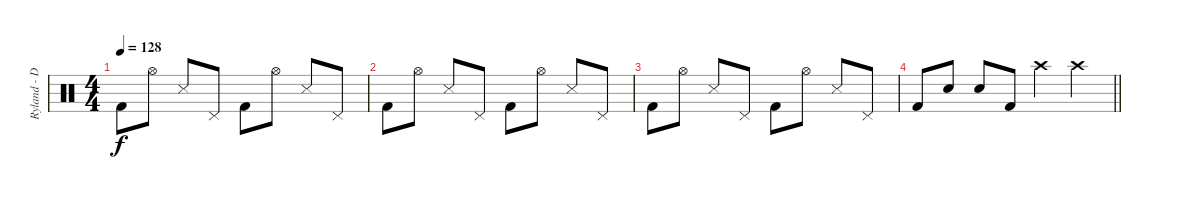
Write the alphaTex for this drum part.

\track ("Ryland - Drums" "Ryland - D") {instrument percussion}
\staff {score}
\articulation defaults
\ts (4 4)
\tempo 128
\clef neutral
\ks c "Kick (hit) 2".8{dy f} "Hi-Hat (open)".8 "Snare (side stick) 3".8 "Pedal Hi-Hat (hit)".8 "Kick (hit) 2".8 "Hi-Hat (open)".8 "Snare (side stick) 3".8 "Pedal Hi-Hat (hit)".8
|
"Kick (hit) 2".8 "Hi-Hat (open)".8 "Snare (side stick) 3".8 "Pedal Hi-Hat (hit)".8 "Kick (hit) 2".8 "Hi-Hat (open)".8 "Snare (side stick) 3".8 "Pedal Hi-Hat (hit)".8 |
"Kick (hit) 2".8 "Hi-Hat (open)".8 "Snare (side stick) 3".8 "Pedal Hi-Hat (hit)".8 "Kick (hit) 2".8 "Hi-Hat (open)".8 "Snare (side stick) 3".8 "Pedal Hi-Hat (hit)".8 |
\barLineRight lightlight "Kick (hit) 2".8 "Electric Snare (hit)".8 "Electric Snare (hit)".8 "Kick (hit) 2".8 "Crash high (hit)".4 "Crash high (hit)".4
